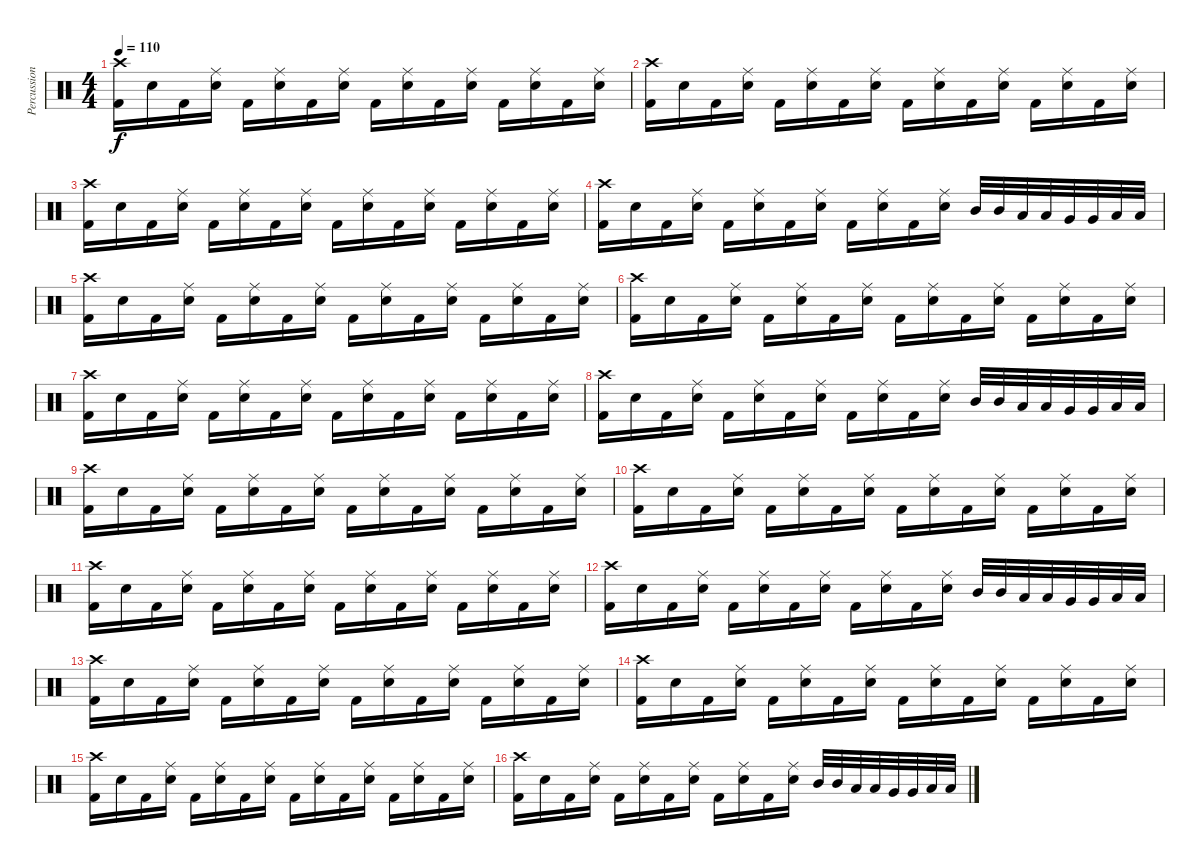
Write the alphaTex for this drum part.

\track ("Percussion" "Percussion") {instrument percussion}
\staff {score}
\articulation defaults
\ts (4 4)
\tempo 110
\clef neutral
\ks c
("Crash high (hit)" "Kick (hit) 2").16{dy f} "Electric Snare (hit)".16 "Kick (hit) 2".16 ("Ride (middle)" "Electric Snare (hit)").16 "Kick (hit) 2".16 ("Ride (middle)" "Electric Snare (hit)").16 "Kick (hit) 2".16 ("Ride (middle)" "Electric Snare (hit)").16 "Kick (hit) 2".16 ("Ride (middle)" "Electric Snare (hit)").16 "Kick (hit) 2".16 ("Ride (middle)" "Electric Snare (hit)").16 "Kick (hit) 2".16 ("Ride (middle)" "Electric Snare (hit)").16 "Kick (hit) 2".16 ("Ride (middle)" "Electric Snare (hit)").16 |
("Crash high (hit)" "Kick (hit) 2").16 "Electric Snare (hit)".16 "Kick (hit) 2".16 ("Ride (middle)" "Electric Snare (hit)").16 "Kick (hit) 2".16 ("Ride (middle)" "Electric Snare (hit)").16 "Kick (hit) 2".16 ("Ride (middle)" "Electric Snare (hit)").16 "Kick (hit) 2".16 ("Ride (middle)" "Electric Snare (hit)").16 "Kick (hit) 2".16 ("Ride (middle)" "Electric Snare (hit)").16 "Kick (hit) 2".16 ("Ride (middle)" "Electric Snare (hit)").16 "Kick (hit) 2".16 ("Ride (middle)" "Electric Snare (hit)").16 |
("Crash high (hit)" "Kick (hit) 2").16 "Electric Snare (hit)".16 "Kick (hit) 2".16 ("Ride (middle)" "Electric Snare (hit)").16 "Kick (hit) 2".16 ("Ride (middle)" "Electric Snare (hit)").16 "Kick (hit) 2".16 ("Ride (middle)" "Electric Snare (hit)").16 "Kick (hit) 2".16 ("Ride (middle)" "Electric Snare (hit)").16 "Kick (hit) 2".16 ("Ride (middle)" "Electric Snare (hit)").16 "Kick (hit) 2".16 ("Ride (middle)" "Electric Snare (hit)").16 "Kick (hit) 2".16 ("Ride (middle)" "Electric Snare (hit)").16 |
("Crash high (hit)" "Kick (hit) 2").16 "Electric Snare (hit)".16 "Kick (hit) 2".16 ("Ride (middle)" "Electric Snare (hit)").16 "Kick (hit) 2".16 ("Ride (middle)" "Electric Snare (hit)").16 "Kick (hit) 2".16 ("Ride (middle)" "Electric Snare (hit)").16 "Kick (hit) 2".16 ("Ride (middle)" "Electric Snare (hit)").16 "Kick (hit) 2".16 ("Ride (middle)" "Electric Snare (hit)").16 "Mid Tom (hit)".32 "Mid Tom (hit)".32 "Low Tom (hit)".32 "Low Tom (hit)".32 "Very Low Tom (hit)".32 "Very Low Tom (hit)".32 "Low Floor Tom (hit)".32 "Low Floor Tom (hit)".32 |
("Crash high (hit)" "Kick (hit) 2").16 "Electric Snare (hit)".16 "Kick (hit) 2".16 ("Ride (middle)" "Electric Snare (hit)").16 "Kick (hit) 2".16 ("Ride (middle)" "Electric Snare (hit)").16 "Kick (hit) 2".16 ("Ride (middle)" "Electric Snare (hit)").16 "Kick (hit) 2".16 ("Ride (middle)" "Electric Snare (hit)").16 "Kick (hit) 2".16 ("Ride (middle)" "Electric Snare (hit)").16 "Kick (hit) 2".16 ("Ride (middle)" "Electric Snare (hit)").16 "Kick (hit) 2".16 ("Ride (middle)" "Electric Snare (hit)").16 |
("Crash high (hit)" "Kick (hit) 2").16 "Electric Snare (hit)".16 "Kick (hit) 2".16 ("Ride (middle)" "Electric Snare (hit)").16 "Kick (hit) 2".16 ("Ride (middle)" "Electric Snare (hit)").16 "Kick (hit) 2".16 ("Ride (middle)" "Electric Snare (hit)").16 "Kick (hit) 2".16 ("Ride (middle)" "Electric Snare (hit)").16 "Kick (hit) 2".16 ("Ride (middle)" "Electric Snare (hit)").16 "Kick (hit) 2".16 ("Ride (middle)" "Electric Snare (hit)").16 "Kick (hit) 2".16 ("Ride (middle)" "Electric Snare (hit)").16 |
("Crash high (hit)" "Kick (hit) 2").16 "Electric Snare (hit)".16 "Kick (hit) 2".16 ("Ride (middle)" "Electric Snare (hit)").16 "Kick (hit) 2".16 ("Ride (middle)" "Electric Snare (hit)").16 "Kick (hit) 2".16 ("Ride (middle)" "Electric Snare (hit)").16 "Kick (hit) 2".16 ("Ride (middle)" "Electric Snare (hit)").16 "Kick (hit) 2".16 ("Ride (middle)" "Electric Snare (hit)").16 "Kick (hit) 2".16 ("Ride (middle)" "Electric Snare (hit)").16 "Kick (hit) 2".16 ("Ride (middle)" "Electric Snare (hit)").16 |
("Crash high (hit)" "Kick (hit) 2").16 "Electric Snare (hit)".16 "Kick (hit) 2".16 ("Ride (middle)" "Electric Snare (hit)").16 "Kick (hit) 2".16 ("Ride (middle)" "Electric Snare (hit)").16 "Kick (hit) 2".16 ("Ride (middle)" "Electric Snare (hit)").16 "Kick (hit) 2".16 ("Ride (middle)" "Electric Snare (hit)").16 "Kick (hit) 2".16 ("Ride (middle)" "Electric Snare (hit)").16 "Mid Tom (hit)".32 "Mid Tom (hit)".32 "Low Tom (hit)".32 "Low Tom (hit)".32 "Very Low Tom (hit)".32 "Very Low Tom (hit)".32 "Low Floor Tom (hit)".32 "Low Floor Tom (hit)".32 |
("Crash high (hit)" "Kick (hit) 2").16 "Electric Snare (hit)".16 "Kick (hit) 2".16 ("Ride (middle)" "Electric Snare (hit)").16 "Kick (hit) 2".16 ("Ride (middle)" "Electric Snare (hit)").16 "Kick (hit) 2".16 ("Ride (middle)" "Electric Snare (hit)").16 "Kick (hit) 2".16 ("Ride (middle)" "Electric Snare (hit)").16 "Kick (hit) 2".16 ("Ride (middle)" "Electric Snare (hit)").16 "Kick (hit) 2".16 ("Ride (middle)" "Electric Snare (hit)").16 "Kick (hit) 2".16 ("Ride (middle)" "Electric Snare (hit)").16 |
("Crash high (hit)" "Kick (hit) 2").16 "Electric Snare (hit)".16 "Kick (hit) 2".16 ("Ride (middle)" "Electric Snare (hit)").16 "Kick (hit) 2".16 ("Ride (middle)" "Electric Snare (hit)").16 "Kick (hit) 2".16 ("Ride (middle)" "Electric Snare (hit)").16 "Kick (hit) 2".16 ("Ride (middle)" "Electric Snare (hit)").16 "Kick (hit) 2".16 ("Ride (middle)" "Electric Snare (hit)").16 "Kick (hit) 2".16 ("Ride (middle)" "Electric Snare (hit)").16 "Kick (hit) 2".16 ("Ride (middle)" "Electric Snare (hit)").16 |
("Crash high (hit)" "Kick (hit) 2").16 "Electric Snare (hit)".16 "Kick (hit) 2".16 ("Ride (middle)" "Electric Snare (hit)").16 "Kick (hit) 2".16 ("Ride (middle)" "Electric Snare (hit)").16 "Kick (hit) 2".16 ("Ride (middle)" "Electric Snare (hit)").16 "Kick (hit) 2".16 ("Ride (middle)" "Electric Snare (hit)").16 "Kick (hit) 2".16 ("Ride (middle)" "Electric Snare (hit)").16 "Kick (hit) 2".16 ("Ride (middle)" "Electric Snare (hit)").16 "Kick (hit) 2".16 ("Ride (middle)" "Electric Snare (hit)").16 |
("Crash high (hit)" "Kick (hit) 2").16 "Electric Snare (hit)".16 "Kick (hit) 2".16 ("Ride (middle)" "Electric Snare (hit)").16 "Kick (hit) 2".16 ("Ride (middle)" "Electric Snare (hit)").16 "Kick (hit) 2".16 ("Ride (middle)" "Electric Snare (hit)").16 "Kick (hit) 2".16 ("Ride (middle)" "Electric Snare (hit)").16 "Kick (hit) 2".16 ("Ride (middle)" "Electric Snare (hit)").16 "Mid Tom (hit)".32 "Mid Tom (hit)".32 "Low Tom (hit)".32 "Low Tom (hit)".32 "Very Low Tom (hit)".32 "Very Low Tom (hit)".32 "Low Floor Tom (hit)".32 "Low Floor Tom (hit)".32 |
("Crash high (hit)" "Kick (hit) 2").16 "Electric Snare (hit)".16 "Kick (hit) 2".16 ("Ride (middle)" "Electric Snare (hit)").16 "Kick (hit) 2".16 ("Ride (middle)" "Electric Snare (hit)").16 "Kick (hit) 2".16 ("Ride (middle)" "Electric Snare (hit)").16 "Kick (hit) 2".16 ("Ride (middle)" "Electric Snare (hit)").16 "Kick (hit) 2".16 ("Ride (middle)" "Electric Snare (hit)").16 "Kick (hit) 2".16 ("Ride (middle)" "Electric Snare (hit)").16 "Kick (hit) 2".16 ("Ride (middle)" "Electric Snare (hit)").16 |
("Crash high (hit)" "Kick (hit) 2").16 "Electric Snare (hit)".16 "Kick (hit) 2".16 ("Ride (middle)" "Electric Snare (hit)").16 "Kick (hit) 2".16 ("Ride (middle)" "Electric Snare (hit)").16 "Kick (hit) 2".16 ("Ride (middle)" "Electric Snare (hit)").16 "Kick (hit) 2".16 ("Ride (middle)" "Electric Snare (hit)").16 "Kick (hit) 2".16 ("Ride (middle)" "Electric Snare (hit)").16 "Kick (hit) 2".16 ("Ride (middle)" "Electric Snare (hit)").16 "Kick (hit) 2".16 ("Ride (middle)" "Electric Snare (hit)").16 |
("Crash high (hit)" "Kick (hit) 2").16 "Electric Snare (hit)".16 "Kick (hit) 2".16 ("Ride (middle)" "Electric Snare (hit)").16 "Kick (hit) 2".16 ("Ride (middle)" "Electric Snare (hit)").16 "Kick (hit) 2".16 ("Ride (middle)" "Electric Snare (hit)").16 "Kick (hit) 2".16 ("Ride (middle)" "Electric Snare (hit)").16 "Kick (hit) 2".16 ("Ride (middle)" "Electric Snare (hit)").16 "Kick (hit) 2".16 ("Ride (middle)" "Electric Snare (hit)").16 "Kick (hit) 2".16 ("Ride (middle)" "Electric Snare (hit)").16 |
("Crash high (hit)" "Kick (hit) 2").16 "Electric Snare (hit)".16 "Kick (hit) 2".16 ("Ride (middle)" "Electric Snare (hit)").16 "Kick (hit) 2".16 ("Ride (middle)" "Electric Snare (hit)").16 "Kick (hit) 2".16 ("Ride (middle)" "Electric Snare (hit)").16 "Kick (hit) 2".16 ("Ride (middle)" "Electric Snare (hit)").16 "Kick (hit) 2".16 ("Ride (middle)" "Electric Snare (hit)").16 "Mid Tom (hit)".32 "Mid Tom (hit)".32 "Low Tom (hit)".32 "Low Tom (hit)".32 "Very Low Tom (hit)".32 "Very Low Tom (hit)".32 "Low Floor Tom (hit)".32 "Low Floor Tom (hit)".32
